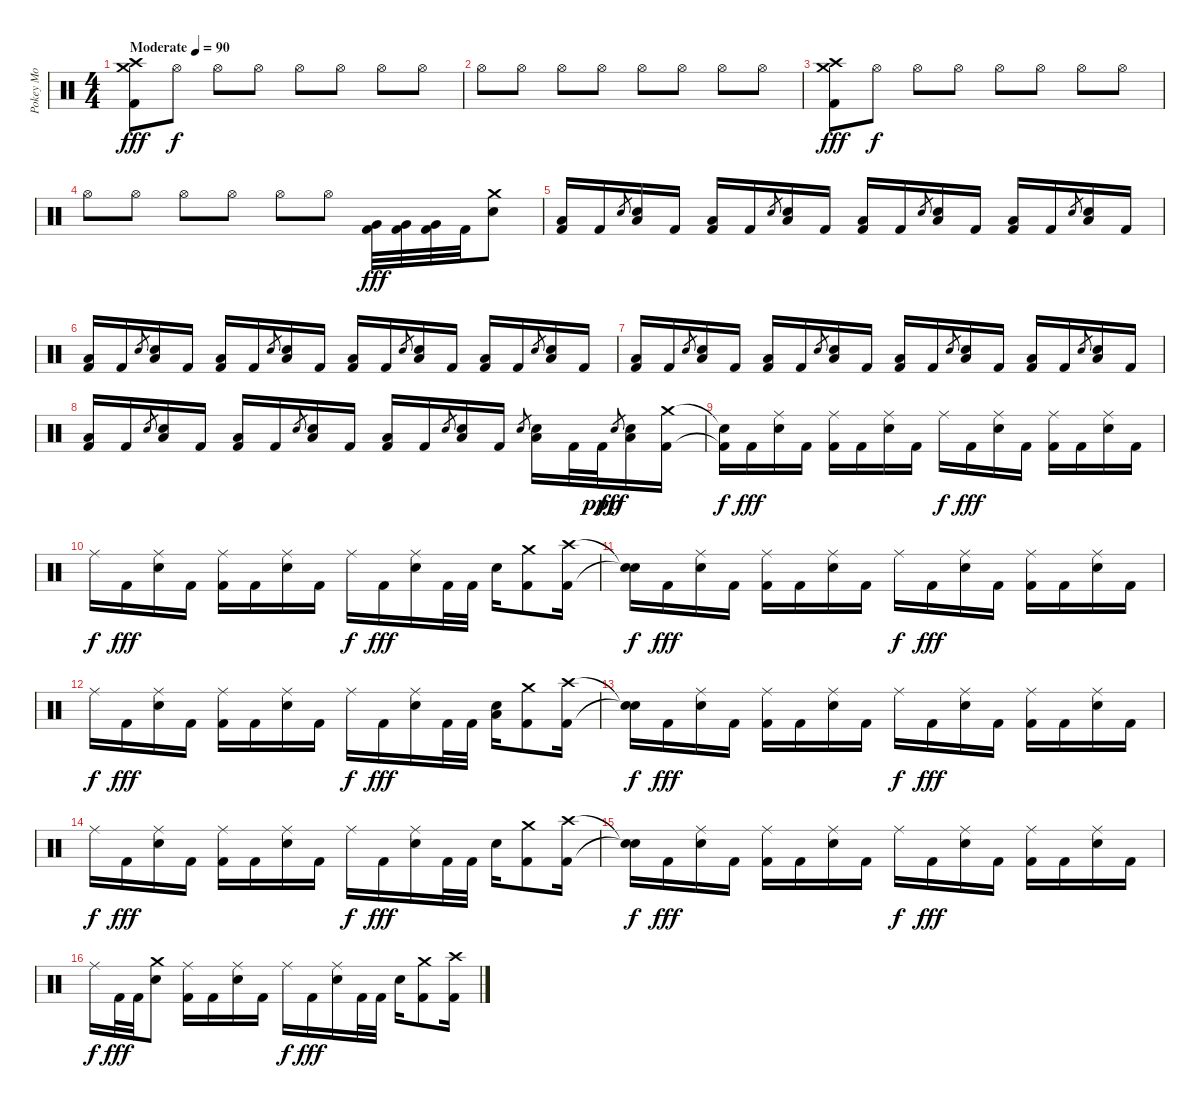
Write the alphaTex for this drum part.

\track ("Pokey Mo" "Pokey Mo") {instrument percussion}
\staff {score}
\articulation defaults
\ts (4 4)
\tempo (90 "Moderate")
\clef neutral
\ks c
("Crash medium (hit)" "Crash high (hit)" "Kick (hit) 2").8{dy fff} "Hi-Hat (open)".8{dy f} "Hi-Hat (open)".8 "Hi-Hat (open)".8 "Hi-Hat (open)".8 "Hi-Hat (open)".8 "Hi-Hat (open)".8 "Hi-Hat (open)".8 |
"Hi-Hat (open)".8 "Hi-Hat (open)".8 "Hi-Hat (open)".8 "Hi-Hat (open)".8 "Hi-Hat (open)".8 "Hi-Hat (open)".8 "Hi-Hat (open)".8 "Hi-Hat (open)".8 |
("Crash medium (hit)" "Crash high (hit)" "Kick (hit) 2").8{dy fff} "Hi-Hat (open)".8{dy f} "Hi-Hat (open)".8 "Hi-Hat (open)".8 "Hi-Hat (open)".8 "Hi-Hat (open)".8 "Hi-Hat (open)".8 "Hi-Hat (open)".8 |
"Hi-Hat (open)".8 "Hi-Hat (open)".8 "Hi-Hat (open)".8 "Hi-Hat (open)".8 "Hi-Hat (open)".8 "Hi-Hat (open)".8 ("Very Low Tom (hit)" "Kick (hit) 2").32{dy fff} ("Very Low Tom (hit)" "Kick (hit) 2").32 ("Very Low Tom (hit)" "Kick (hit) 2").32 "Kick (hit) 2".32 ("Crash medium (hit)" "Electric Snare (hit)").8 |
("Low Floor Tom (hit)" "Kick (hit) 2").16 "Kick (hit) 2".16 "Electric Snare (hit)".8{gr} ("Electric Snare (hit)" "Low Floor Tom (hit)").16 "Kick (hit) 2".16 ("Low Floor Tom (hit)" "Kick (hit) 2").16 "Kick (hit) 2".16 "Electric Snare (hit)".8{gr} ("Electric Snare (hit)" "Low Floor Tom (hit)").16 "Kick (hit) 2".16 ("Low Floor Tom (hit)" "Kick (hit) 2").16 "Kick (hit) 2".16 "Electric Snare (hit)".8{gr} ("Electric Snare (hit)" "Low Floor Tom (hit)").16 "Kick (hit) 2".16 ("Low Floor Tom (hit)" "Kick (hit) 2").16 "Kick (hit) 2".16 "Electric Snare (hit)".8{gr} ("Electric Snare (hit)" "Low Floor Tom (hit)").16 "Kick (hit) 2".16 |
("Low Floor Tom (hit)" "Kick (hit) 2").16 "Kick (hit) 2".16 "Electric Snare (hit)".8{gr} ("Electric Snare (hit)" "Low Floor Tom (hit)").16 "Kick (hit) 2".16 ("Low Floor Tom (hit)" "Kick (hit) 2").16 "Kick (hit) 2".16 "Electric Snare (hit)".8{gr} ("Electric Snare (hit)" "Low Floor Tom (hit)").16 "Kick (hit) 2".16 ("Low Floor Tom (hit)" "Kick (hit) 2").16 "Kick (hit) 2".16 "Electric Snare (hit)".8{gr} ("Electric Snare (hit)" "Low Floor Tom (hit)").16 "Kick (hit) 2".16 ("Low Floor Tom (hit)" "Kick (hit) 2").16 "Kick (hit) 2".16 "Electric Snare (hit)".8{gr} ("Electric Snare (hit)" "Low Floor Tom (hit)").16 "Kick (hit) 2".16 |
("Low Floor Tom (hit)" "Kick (hit) 2").16 "Kick (hit) 2".16 "Electric Snare (hit)".8{gr} ("Electric Snare (hit)" "Low Floor Tom (hit)").16 "Kick (hit) 2".16 ("Low Floor Tom (hit)" "Kick (hit) 2").16 "Kick (hit) 2".16 "Electric Snare (hit)".8{gr} ("Electric Snare (hit)" "Low Floor Tom (hit)").16 "Kick (hit) 2".16 ("Low Floor Tom (hit)" "Kick (hit) 2").16 "Kick (hit) 2".16 "Electric Snare (hit)".8{gr} ("Electric Snare (hit)" "Low Floor Tom (hit)").16 "Kick (hit) 2".16 ("Low Floor Tom (hit)" "Kick (hit) 2").16 "Kick (hit) 2".16 "Electric Snare (hit)".8{gr} ("Electric Snare (hit)" "Low Floor Tom (hit)").16 "Kick (hit) 2".16 |
("Low Floor Tom (hit)" "Kick (hit) 2").16 "Kick (hit) 2".16 "Electric Snare (hit)".8{gr} ("Electric Snare (hit)" "Low Floor Tom (hit)").16 "Kick (hit) 2".16 ("Low Floor Tom (hit)" "Kick (hit) 2").16 "Kick (hit) 2".16 "Electric Snare (hit)".8{gr} ("Electric Snare (hit)" "Low Floor Tom (hit)").16 "Kick (hit) 2".16 ("Low Floor Tom (hit)" "Kick (hit) 2").16 "Kick (hit) 2".16 "Electric Snare (hit)".8{gr} ("Electric Snare (hit)" "Low Floor Tom (hit)").16 "Kick (hit) 2".16 "Electric Snare (hit)".8{gr} ("Electric Snare (hit)" "Low Floor Tom (hit)").16 "Kick (hit) 2".32 "Kick (hit) 2".32{dy ppp} "Electric Snare (hit)".8{gr dy fff} ("Electric Snare (hit)" "Low Floor Tom (hit)").16 ("Crash medium (hit)" "Kick (hit) 2").16 |
("Snare (hit)"{t} "Kick (hit) 2"{t}).16{dy f} "Kick (hit) 2".16{dy fff} ("Ride (middle)" "Electric Snare (hit)").16 "Kick (hit) 2".16 ("Ride (middle)" "Kick (hit) 2").16 "Kick (hit) 2".16 ("Ride (middle)" "Electric Snare (hit)").16 "Kick (hit) 2".16 "Ride (middle)".16{dy f} "Kick (hit) 2".16{dy fff} ("Ride (middle)" "Electric Snare (hit)").16 "Kick (hit) 2".16 ("Ride (middle)" "Kick (hit) 2").16 "Kick (hit) 2".16 ("Ride (middle)" "Electric Snare (hit)").16 "Kick (hit) 2".16 |
"Ride (middle)".16{dy f} "Kick (hit) 2".16{dy fff} ("Ride (middle)" "Electric Snare (hit)").16 "Kick (hit) 2".16 ("Ride (middle)" "Kick (hit) 2").16 "Kick (hit) 2".16 ("Ride (middle)" "Electric Snare (hit)").16 "Kick (hit) 2".16 "Ride (middle)".16{dy f} "Kick (hit) 2".16{dy fff} ("Ride (middle)" "Electric Snare (hit)").16 "Kick (hit) 2".32 "Kick (hit) 2".32 "Electric Snare (hit)".16 ("Crash medium (hit)" "Kick (hit) 2").8 ("Crash high (hit)" "Kick (hit) 2").16 |
("Snare (hit)"{t} "Snare (hit)"{t}).16{dy f} "Kick (hit) 2".16{dy fff} ("Ride (middle)" "Electric Snare (hit)").16 "Kick (hit) 2".16 ("Ride (middle)" "Kick (hit) 2").16 "Kick (hit) 2".16 ("Ride (middle)" "Electric Snare (hit)").16 "Kick (hit) 2".16 "Ride (middle)".16{dy f} "Kick (hit) 2".16{dy fff} ("Ride (middle)" "Electric Snare (hit)").16 "Kick (hit) 2".16 ("Ride (middle)" "Kick (hit) 2").16 "Kick (hit) 2".16 ("Ride (middle)" "Electric Snare (hit)").16 "Kick (hit) 2".16 |
"Ride (middle)".16{dy f} "Kick (hit) 2".16{dy fff} ("Ride (middle)" "Electric Snare (hit)").16 "Kick (hit) 2".16 ("Ride (middle)" "Kick (hit) 2").16 "Kick (hit) 2".16 ("Ride (middle)" "Electric Snare (hit)").16 "Kick (hit) 2".16 "Ride (middle)".16{dy f} "Kick (hit) 2".16{dy fff} ("Ride (middle)" "Electric Snare (hit)").16 "Kick (hit) 2".32 "Kick (hit) 2".32 ("Electric Snare (hit)" "Low Floor Tom (hit)").16 ("Crash medium (hit)" "Kick (hit) 2").8 ("Crash high (hit)" "Kick (hit) 2").16 |
("Snare (hit)"{t} "Snare (hit)"{t}).16{dy f} "Kick (hit) 2".16{dy fff} ("Ride (middle)" "Electric Snare (hit)").16 "Kick (hit) 2".16 ("Ride (middle)" "Kick (hit) 2").16 "Kick (hit) 2".16 ("Ride (middle)" "Electric Snare (hit)").16 "Kick (hit) 2".16 "Ride (middle)".16{dy f} "Kick (hit) 2".16{dy fff} ("Ride (middle)" "Electric Snare (hit)").16 "Kick (hit) 2".16 ("Ride (middle)" "Kick (hit) 2").16 "Kick (hit) 2".16 ("Ride (middle)" "Electric Snare (hit)").16 "Kick (hit) 2".16 |
"Ride (middle)".16{dy f} "Kick (hit) 2".16{dy fff} ("Ride (middle)" "Electric Snare (hit)").16 "Kick (hit) 2".16 ("Ride (middle)" "Kick (hit) 2").16 "Kick (hit) 2".16 ("Ride (middle)" "Electric Snare (hit)").16 "Kick (hit) 2".16 "Ride (middle)".16{dy f} "Kick (hit) 2".16{dy fff} ("Ride (middle)" "Electric Snare (hit)").16 "Kick (hit) 2".32 "Kick (hit) 2".32 "Electric Snare (hit)".16 ("Crash medium (hit)" "Kick (hit) 2").8 ("Crash high (hit)" "Kick (hit) 2").16 |
("Snare (hit)"{t} "Snare (hit)"{t}).16{dy f} "Kick (hit) 2".16{dy fff} ("Ride (middle)" "Electric Snare (hit)").16 "Kick (hit) 2".16 ("Ride (middle)" "Kick (hit) 2").16 "Kick (hit) 2".16 ("Ride (middle)" "Electric Snare (hit)").16 "Kick (hit) 2".16 "Ride (middle)".16{dy f} "Kick (hit) 2".16{dy fff} ("Ride (middle)" "Electric Snare (hit)").16 "Kick (hit) 2".16 ("Ride (middle)" "Kick (hit) 2").16 "Kick (hit) 2".16 ("Ride (middle)" "Electric Snare (hit)").16 "Kick (hit) 2".16 |
"Ride (middle)".16{dy f} "Kick (hit) 2".32{dy fff} "Kick (hit) 2".32 ("Crash medium (hit)" "Electric Snare (hit)").8 ("Ride (middle)" "Kick (hit) 2").16 "Kick (hit) 2".16 ("Ride (middle)" "Electric Snare (hit)").16 "Kick (hit) 2".16 "Ride (middle)".16{dy f} "Kick (hit) 2".16{dy fff} ("Ride (middle)" "Electric Snare (hit)").16 "Kick (hit) 2".32 "Kick (hit) 2".32 "Electric Snare (hit)".16 ("Crash medium (hit)" "Kick (hit) 2").8 ("Crash high (hit)" "Kick (hit) 2").16
